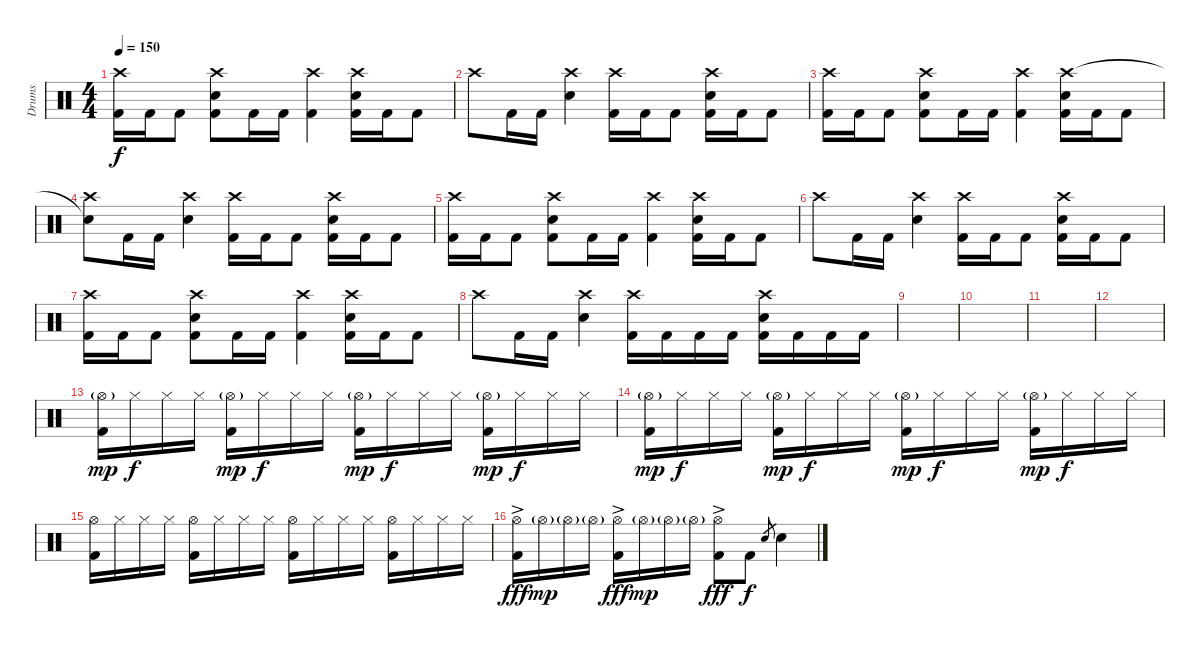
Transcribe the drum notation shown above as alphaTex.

\track ("Drums" "Drums") {instrument percussion}
\staff {score}
\articulation defaults
\ts (4 4)
\tempo 150
\clef neutral
\ks c
("Crash high (hit)" "Kick (hit) 2").16{dy f} "Kick (hit) 2".16 "Kick (hit) 2".8 ("Kick (hit) 2" "Crash high (hit)" "Electric Snare (hit)").8 "Kick (hit) 2".16 "Kick (hit) 2".16 ("Crash high (hit)" "Kick (hit) 2").4 ("Kick (hit) 2" "Crash high (hit)" "Electric Snare (hit)").16 "Kick (hit) 2".16 "Kick (hit) 2".8 |
"Crash high (hit)".8 "Kick (hit) 2".16 "Kick (hit) 2".16 ("Crash high (hit)" "Electric Snare (hit)").4 ("Crash high (hit)" "Kick (hit) 2").16 "Kick (hit) 2".16 "Kick (hit) 2".8 ("Kick (hit) 2" "Crash high (hit)" "Electric Snare (hit)").16 "Kick (hit) 2".16 "Kick (hit) 2".8 |
("Crash high (hit)" "Kick (hit) 2").16 "Kick (hit) 2".16 "Kick (hit) 2".8 ("Kick (hit) 2" "Crash high (hit)" "Electric Snare (hit)").8 "Kick (hit) 2".16 "Kick (hit) 2".16 ("Crash high (hit)" "Kick (hit) 2").4 ("Kick (hit) 2" "Crash high (hit)" "Electric Snare (hit)").16 "Kick (hit) 2".16 "Kick (hit) 2".8 |
("Crash high (hit)" "Electric Snare (hit)"{t}).8 "Kick (hit) 2".16 "Kick (hit) 2".16 ("Crash high (hit)" "Electric Snare (hit)").4 ("Crash high (hit)" "Kick (hit) 2").16 "Kick (hit) 2".16 "Kick (hit) 2".8 ("Kick (hit) 2" "Crash high (hit)" "Electric Snare (hit)").16 "Kick (hit) 2".16 "Kick (hit) 2".8 |
("Crash high (hit)" "Kick (hit) 2").16 "Kick (hit) 2".16 "Kick (hit) 2".8 ("Kick (hit) 2" "Crash high (hit)" "Electric Snare (hit)").8 "Kick (hit) 2".16 "Kick (hit) 2".16 ("Crash high (hit)" "Kick (hit) 2").4 ("Kick (hit) 2" "Crash high (hit)" "Electric Snare (hit)").16 "Kick (hit) 2".16 "Kick (hit) 2".8 |
"Crash high (hit)".8 "Kick (hit) 2".16 "Kick (hit) 2".16 ("Crash high (hit)" "Electric Snare (hit)").4 ("Crash high (hit)" "Kick (hit) 2").16 "Kick (hit) 2".16 "Kick (hit) 2".8 ("Kick (hit) 2" "Crash high (hit)" "Electric Snare (hit)").16 "Kick (hit) 2".16 "Kick (hit) 2".8 |
("Crash high (hit)" "Kick (hit) 2").16 "Kick (hit) 2".16 "Kick (hit) 2".8 ("Kick (hit) 2" "Crash high (hit)" "Electric Snare (hit)").8 "Kick (hit) 2".16 "Kick (hit) 2".16 ("Crash high (hit)" "Kick (hit) 2").4 ("Kick (hit) 2" "Crash high (hit)" "Electric Snare (hit)").16 "Kick (hit) 2".16 "Kick (hit) 2".8 |
"Crash high (hit)".8 "Kick (hit) 2".16 "Kick (hit) 2".16 ("Crash high (hit)" "Electric Snare (hit)").4 ("Crash high (hit)" "Kick (hit) 2").16 "Kick (hit) 2".16 "Kick (hit) 2".16 "Kick (hit) 2".16 ("Crash high (hit)" "Electric Snare (hit)" "Kick (hit) 2").16 "Kick (hit) 2".16 "Kick (hit) 2".16 "Kick (hit) 2".16 |
|
|
|
|
("Hi-Hat (open)"{g} "Kick (hit) 2").16{dy mp} "Hi-Hat (closed)".16{dy f} "Hi-Hat (closed)".16 "Hi-Hat (closed)".16 ("Hi-Hat (open)"{g} "Kick (hit) 2").16{dy mp} "Hi-Hat (closed)".16{dy f} "Hi-Hat (closed)".16 "Hi-Hat (closed)".16 ("Hi-Hat (open)"{g} "Kick (hit) 2").16{dy mp} "Hi-Hat (closed)".16{dy f} "Hi-Hat (closed)".16 "Hi-Hat (closed)".16 ("Hi-Hat (open)"{g} "Kick (hit) 2").16{dy mp} "Hi-Hat (closed)".16{dy f} "Hi-Hat (closed)".16 "Hi-Hat (closed)".16 |
("Hi-Hat (open)"{g} "Kick (hit) 2").16{dy mp} "Hi-Hat (closed)".16{dy f} "Hi-Hat (closed)".16 "Hi-Hat (closed)".16 ("Hi-Hat (open)"{g} "Kick (hit) 2").16{dy mp} "Hi-Hat (closed)".16{dy f} "Hi-Hat (closed)".16 "Hi-Hat (closed)".16 ("Hi-Hat (open)"{g} "Kick (hit) 2").16{dy mp} "Hi-Hat (closed)".16{dy f} "Hi-Hat (closed)".16 "Hi-Hat (closed)".16 ("Hi-Hat (open)"{g} "Kick (hit) 2").16{dy mp} "Hi-Hat (closed)".16{dy f} "Hi-Hat (closed)".16 "Hi-Hat (closed)".16 |
("Hi-Hat (open)" "Kick (hit) 2").16 "Hi-Hat (closed)".16 "Hi-Hat (closed)".16 "Hi-Hat (closed)".16 ("Hi-Hat (open)" "Kick (hit) 2").16 "Hi-Hat (closed)".16 "Hi-Hat (closed)".16 "Hi-Hat (closed)".16 ("Hi-Hat (open)" "Kick (hit) 2").16 "Hi-Hat (closed)".16 "Hi-Hat (closed)".16 "Hi-Hat (closed)".16 ("Hi-Hat (open)" "Kick (hit) 2").16 "Hi-Hat (closed)".16 "Hi-Hat (closed)".16 "Hi-Hat (closed)".16 |
("Hi-Hat (open)"{ac} "Kick (hit) 2").16{dy fff} "Hi-Hat (open)"{g}.16{dy mp} "Hi-Hat (open)"{g}.16 "Hi-Hat (open)"{g}.16 ("Hi-Hat (open)"{ac} "Kick (hit) 2").16{dy fff} "Hi-Hat (open)"{g}.16{dy mp} "Hi-Hat (open)"{g}.16 "Hi-Hat (open)"{g}.16 ("Hi-Hat (open)"{ac} "Kick (hit) 2").8{dy fff} "Kick (hit) 2".8{dy f} "Electric Snare (hit)".8{gr} "Electric Snare (hit)".4
